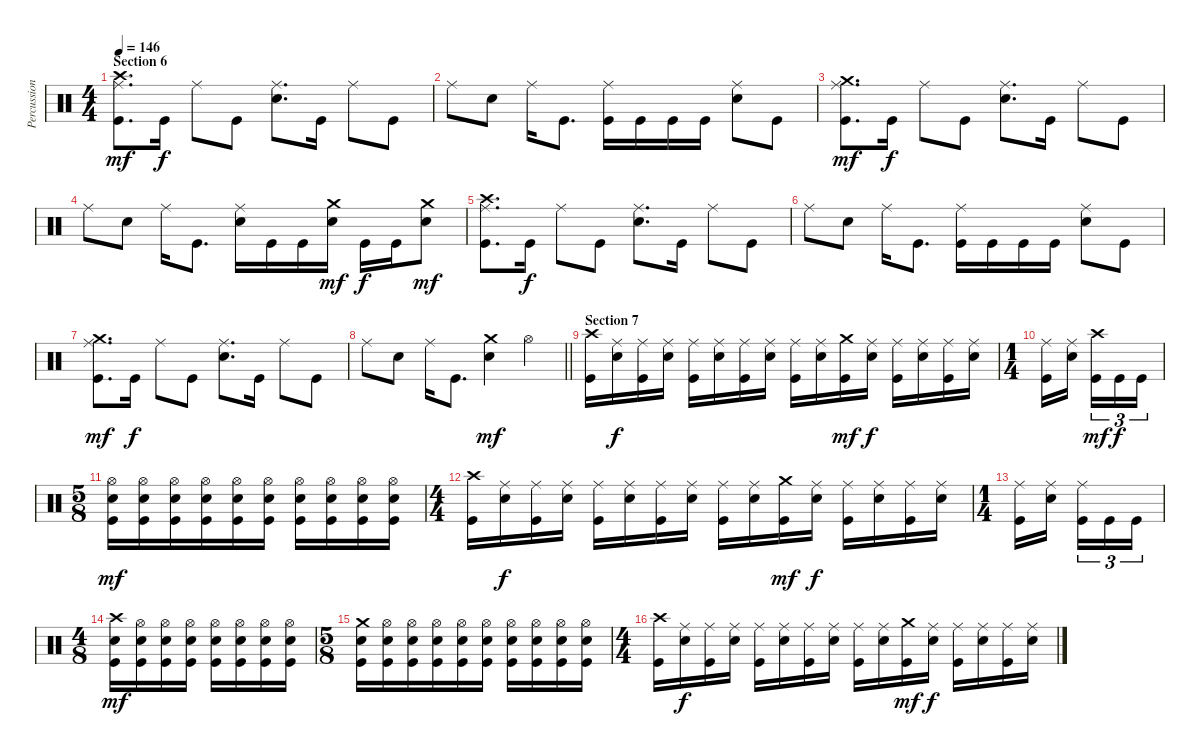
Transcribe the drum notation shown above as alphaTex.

\track ("Percussion" "Percussion") {instrument percussion}
\staff {score}
\articulation defaults
\ts (4 4)
\section ("" "Section 6")
\tempo 146
\clef neutral
\ks c
("Crash high (hit)" "Ride (middle)" "Kick (hit)").8{d dy mf} "Kick (hit)".16{dy f} "Ride (middle)".8 "Kick (hit)".8 ("Ride (middle)" "Electric Snare (hit)").8{d} "Kick (hit)".16 "Ride (middle)".8 "Kick (hit)".8 |
"Ride (middle)".8 "Electric Snare (hit)".8 "Ride (middle)".16 "Kick (hit)".8{d} ("Ride (middle)" "Kick (hit)").16 "Kick (hit)".16 "Kick (hit)".16 "Kick (hit)".16 ("Ride (middle)" "Electric Snare (hit)").8 "Kick (hit)".8 |
("Crash medium (hit)" "Ride (middle)" "Kick (hit)").8{d dy mf} "Kick (hit)".16{dy f} "Ride (middle)".8 "Kick (hit)".8 ("Ride (middle)" "Electric Snare (hit)").8{d} "Kick (hit)".16 "Ride (middle)".8 "Kick (hit)".8 |
"Ride (middle)".8 "Electric Snare (hit)".8 "Ride (middle)".16 "Kick (hit)".8{d} ("Ride (middle)" "Electric Snare (hit)").16 "Kick (hit)".16 "Kick (hit)".16 ("Crash medium (hit)" "Electric Snare (hit)").16{dy mf} "Kick (hit)".16{dy f} "Kick (hit)".16 ("Crash medium (hit)" "Electric Snare (hit)").8{dy mf} |
("Crash high (hit)" "Ride (middle)" "Kick (hit)").8{d} "Kick (hit)".16{dy f} "Ride (middle)".8 "Kick (hit)".8 ("Ride (middle)" "Electric Snare (hit)").8{d} "Kick (hit)".16 "Ride (middle)".8 "Kick (hit)".8 |
"Ride (middle)".8 "Electric Snare (hit)".8 "Ride (middle)".16 "Kick (hit)".8{d} ("Ride (middle)" "Kick (hit)").16 "Kick (hit)".16 "Kick (hit)".16 "Kick (hit)".16 ("Ride (middle)" "Electric Snare (hit)").8 "Kick (hit)".8 |
("Crash medium (hit)" "Ride (middle)" "Kick (hit)").8{d dy mf} "Kick (hit)".16{dy f} "Ride (middle)".8 "Kick (hit)".8 ("Ride (middle)" "Electric Snare (hit)").8{d} "Kick (hit)".16 "Ride (middle)".8 "Kick (hit)".8 |
\barLineRight lightlight "Ride (middle)".8 "Electric Snare (hit)".8 "Ride (middle)".16 "Kick (hit)".8{d}
("Crash medium (hit)" "Electric Snare (hit)").4{dy mf} "Hi-Hat (open)".4 |
\section ("" "Section 7")
("Crash high (hit)" "Kick (hit)").16 ("Ride (middle)" "Electric Snare (hit)").16{dy f} ("Ride (middle)" "Kick (hit)").16 ("Ride (middle)" "Electric Snare (hit)").16 ("Ride (middle)" "Kick (hit)").16 ("Ride (middle)" "Electric Snare (hit)").16 ("Ride (middle)" "Kick (hit)").16 ("Ride (middle)" "Electric Snare (hit)").16 ("Ride (middle)" "Kick (hit)").16 ("Ride (middle)" "Electric Snare (hit)").16 ("Crash medium (hit)" "Kick (hit)").16{dy mf} ("Ride (middle)" "Electric Snare (hit)").16{dy f} ("Ride (middle)" "Kick (hit)").16 ("Ride (middle)" "Electric Snare (hit)").16 ("Ride (middle)" "Kick (hit)").16 ("Ride (middle)" "Electric Snare (hit)").16 |
\ts (1 4)
("Ride (middle)" "Kick (hit)").16 ("Ride (middle)" "Electric Snare (hit)").16{beam splitsecondary} ("Crash high (hit)" "Kick (hit)").16{tu (3 2) dy mf} "Kick (hit)".16{tu (3 2) dy f} "Kick (hit)".16{tu (3 2)} |
\ts (5 8)
("Hi-Hat (open)" "Electric Snare (hit)" "Kick (hit)").16{dy mf} ("Hi-Hat (open)" "Electric Snare (hit)" "Kick (hit)").16 ("Hi-Hat (open)" "Electric Snare (hit)" "Kick (hit)").16 ("Hi-Hat (open)" "Electric Snare (hit)" "Kick (hit)").16 ("Hi-Hat (open)" "Electric Snare (hit)" "Kick (hit)").16 ("Hi-Hat (open)" "Electric Snare (hit)" "Kick (hit)").16 ("Hi-Hat (open)" "Electric Snare (hit)" "Kick (hit)").16 ("Hi-Hat (open)" "Electric Snare (hit)" "Kick (hit)").16 ("Hi-Hat (open)" "Electric Snare (hit)" "Kick (hit)").16 ("Hi-Hat (open)" "Electric Snare (hit)" "Kick (hit)").16 |
\ts (4 4)
("Crash high (hit)" "Kick (hit)").16 ("Ride (middle)" "Electric Snare (hit)").16{dy f} ("Ride (middle)" "Kick (hit)").16 ("Ride (middle)" "Electric Snare (hit)").16 ("Ride (middle)" "Kick (hit)").16 ("Ride (middle)" "Electric Snare (hit)").16 ("Ride (middle)" "Kick (hit)").16 ("Ride (middle)" "Electric Snare (hit)").16 ("Ride (middle)" "Kick (hit)").16 ("Ride (middle)" "Electric Snare (hit)").16 ("Crash medium (hit)" "Kick (hit)").16{dy mf} ("Ride (middle)" "Electric Snare (hit)").16{dy f} ("Ride (middle)" "Kick (hit)").16 ("Ride (middle)" "Electric Snare (hit)").16 ("Ride (middle)" "Kick (hit)").16 ("Ride (middle)" "Electric Snare (hit)").16 |
\ts (1 4)
("Ride (middle)" "Kick (hit)").16 ("Ride (middle)" "Electric Snare (hit)").16{beam splitsecondary} ("Ride (middle)" "Kick (hit)").16{tu (3 2)} "Kick (hit)".16{tu (3 2)} "Kick (hit)".16{tu (3 2)} |
\ts (4 8)
("Crash high (hit)" "Electric Snare (hit)" "Kick (hit)").16{dy mf} ("Hi-Hat (open)" "Electric Snare (hit)" "Kick (hit)").16 ("Hi-Hat (open)" "Electric Snare (hit)" "Kick (hit)").16 ("Hi-Hat (open)" "Electric Snare (hit)" "Kick (hit)").16 ("Hi-Hat (open)" "Electric Snare (hit)" "Kick (hit)").16 ("Hi-Hat (open)" "Electric Snare (hit)" "Kick (hit)").16 ("Hi-Hat (open)" "Electric Snare (hit)" "Kick (hit)").16 ("Hi-Hat (open)" "Electric Snare (hit)" "Kick (hit)").16 |
\ts (5 8)
("Crash medium (hit)" "Electric Snare (hit)" "Kick (hit)").16 ("Hi-Hat (open)" "Electric Snare (hit)" "Kick (hit)").16 ("Hi-Hat (open)" "Electric Snare (hit)" "Kick (hit)").16 ("Hi-Hat (open)" "Electric Snare (hit)" "Kick (hit)").16 ("Hi-Hat (open)" "Electric Snare (hit)" "Kick (hit)").16 ("Hi-Hat (open)" "Electric Snare (hit)" "Kick (hit)").16 ("Hi-Hat (open)" "Electric Snare (hit)" "Kick (hit)").16 ("Hi-Hat (open)" "Electric Snare (hit)" "Kick (hit)").16 ("Hi-Hat (open)" "Electric Snare (hit)" "Kick (hit)").16 ("Hi-Hat (open)" "Electric Snare (hit)" "Kick (hit)").16 |
\ts (4 4)
("Crash high (hit)" "Kick (hit)").16 ("Ride (middle)" "Electric Snare (hit)").16{dy f} ("Ride (middle)" "Kick (hit)").16 ("Ride (middle)" "Electric Snare (hit)").16 ("Ride (middle)" "Kick (hit)").16 ("Ride (middle)" "Electric Snare (hit)").16 ("Ride (middle)" "Kick (hit)").16 ("Ride (middle)" "Electric Snare (hit)").16 ("Ride (middle)" "Kick (hit)").16 ("Ride (middle)" "Electric Snare (hit)").16 ("Crash medium (hit)" "Kick (hit)").16{dy mf} ("Ride (middle)" "Electric Snare (hit)").16{dy f} ("Ride (middle)" "Kick (hit)").16 ("Ride (middle)" "Electric Snare (hit)").16 ("Ride (middle)" "Kick (hit)").16 ("Ride (middle)" "Electric Snare (hit)").16
